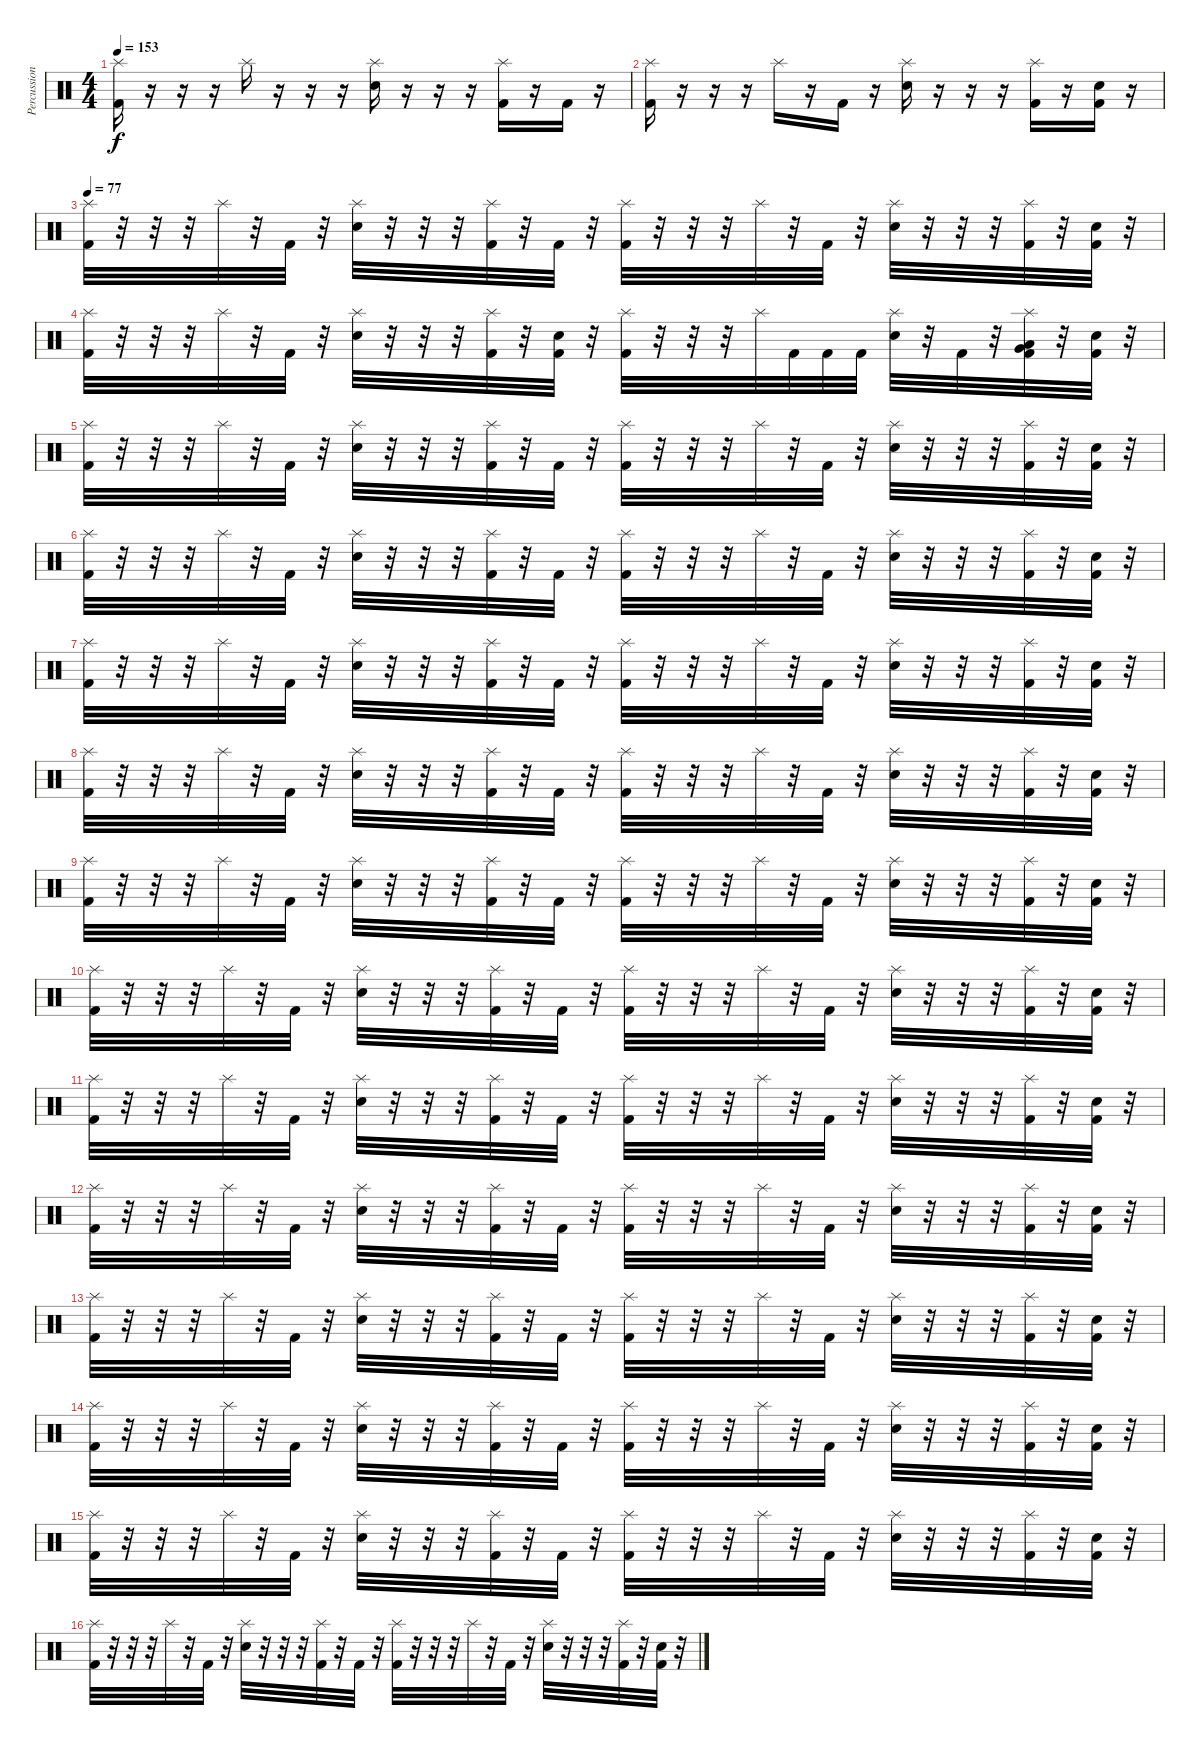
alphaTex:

\track ("Percussion" "Percussion") {instrument percussion}
\staff {score}
\articulation defaults
\ts (4 4)
\tempo 153
\clef neutral
\ks c
("Splash (hit)" "Kick (hit) 2").16{dy f} r.16 r.16 r.16 "Splash (hit)".16 r.16 r.16 r.16 ("Splash (hit)" "Electric Snare (hit)").16 r.16 r.16 r.16 ("Splash (hit)" "Kick (hit) 2").16 r.16 "Kick (hit) 2".16 r.16 |
("Splash (hit)" "Kick (hit) 2").16 r.16 r.16 r.16 "Splash (hit)".16 r.16 "Kick (hit) 2".16 r.16 ("Splash (hit)" "Electric Snare (hit)").16 r.16 r.16 r.16 ("Splash (hit)" "Kick (hit) 2").16 r.16 ("Electric Snare (hit)" "Kick (hit) 2").16 r.16 |
\tempo 77
("Splash (hit)" "Kick (hit) 2").32 r.32 r.32 r.32 "Splash (hit)".32 r.32 "Kick (hit) 2".32 r.32 ("Splash (hit)" "Electric Snare (hit)").32 r.32 r.32 r.32 ("Splash (hit)" "Kick (hit) 2").32 r.32 "Kick (hit) 2".32 r.32 ("Splash (hit)" "Kick (hit) 2").32 r.32 r.32 r.32 "Splash (hit)".32 r.32 "Kick (hit) 2".32 r.32 ("Splash (hit)" "Electric Snare (hit)").32 r.32 r.32 r.32 ("Splash (hit)" "Kick (hit) 2").32 r.32 ("Electric Snare (hit)" "Kick (hit) 2").32 r.32 |
("Splash (hit)" "Kick (hit) 2").32 r.32 r.32 r.32 "Splash (hit)".32 r.32 "Kick (hit) 2".32 r.32 ("Splash (hit)" "Electric Snare (hit)").32 r.32 r.32 r.32 ("Splash (hit)" "Kick (hit) 2").32 r.32 ("Electric Snare (hit)" "Kick (hit) 2").32 r.32 ("Splash (hit)" "Kick (hit) 2").32 r.32 r.32 r.32 "Splash (hit)".32 "Kick (hit) 2".32 "Kick (hit) 2".32 "Kick (hit) 2".32 ("Splash (hit)" "Electric Snare (hit)").32 r.32 "Kick (hit) 2".32 r.32 ("Splash (hit)" "Very Low Tom (hit)" "Low Floor Tom (hit)" "Kick (hit) 2").32 r.32 ("Electric Snare (hit)" "Kick (hit) 2").32 r.32 |
("Splash (hit)" "Kick (hit) 2").32 r.32 r.32 r.32 "Splash (hit)".32 r.32 "Kick (hit) 2".32 r.32 ("Splash (hit)" "Electric Snare (hit)").32 r.32 r.32 r.32 ("Splash (hit)" "Kick (hit) 2").32 r.32 "Kick (hit) 2".32 r.32 ("Splash (hit)" "Kick (hit) 2").32 r.32 r.32 r.32 "Splash (hit)".32 r.32 "Kick (hit) 2".32 r.32 ("Splash (hit)" "Electric Snare (hit)").32 r.32 r.32 r.32 ("Splash (hit)" "Kick (hit) 2").32 r.32 ("Electric Snare (hit)" "Kick (hit) 2").32 r.32 |
("Splash (hit)" "Kick (hit) 2").32 r.32 r.32 r.32 "Splash (hit)".32 r.32 "Kick (hit) 2".32 r.32 ("Splash (hit)" "Electric Snare (hit)").32 r.32 r.32 r.32 ("Splash (hit)" "Kick (hit) 2").32 r.32 "Kick (hit) 2".32 r.32 ("Splash (hit)" "Kick (hit) 2").32 r.32 r.32 r.32 "Splash (hit)".32 r.32 "Kick (hit) 2".32 r.32 ("Splash (hit)" "Electric Snare (hit)").32 r.32 r.32 r.32 ("Splash (hit)" "Kick (hit) 2").32 r.32 ("Electric Snare (hit)" "Kick (hit) 2").32 r.32 |
("Splash (hit)" "Kick (hit) 2").32 r.32 r.32 r.32 "Splash (hit)".32 r.32 "Kick (hit) 2".32 r.32 ("Splash (hit)" "Electric Snare (hit)").32 r.32 r.32 r.32 ("Splash (hit)" "Kick (hit) 2").32 r.32 "Kick (hit) 2".32 r.32 ("Splash (hit)" "Kick (hit) 2").32 r.32 r.32 r.32 "Splash (hit)".32 r.32 "Kick (hit) 2".32 r.32 ("Splash (hit)" "Electric Snare (hit)").32 r.32 r.32 r.32 ("Splash (hit)" "Kick (hit) 2").32 r.32 ("Electric Snare (hit)" "Kick (hit) 2").32 r.32 |
("Splash (hit)" "Kick (hit) 2").32 r.32 r.32 r.32 "Splash (hit)".32 r.32 "Kick (hit) 2".32 r.32 ("Splash (hit)" "Electric Snare (hit)").32 r.32 r.32 r.32 ("Splash (hit)" "Kick (hit) 2").32 r.32 "Kick (hit) 2".32 r.32 ("Splash (hit)" "Kick (hit) 2").32 r.32 r.32 r.32 "Splash (hit)".32 r.32 "Kick (hit) 2".32 r.32 ("Splash (hit)" "Electric Snare (hit)").32 r.32 r.32 r.32 ("Splash (hit)" "Kick (hit) 2").32 r.32 ("Electric Snare (hit)" "Kick (hit) 2").32 r.32 |
("Splash (hit)" "Kick (hit) 2").32 r.32 r.32 r.32 "Splash (hit)".32 r.32 "Kick (hit) 2".32 r.32 ("Splash (hit)" "Electric Snare (hit)").32 r.32 r.32 r.32 ("Splash (hit)" "Kick (hit) 2").32 r.32 "Kick (hit) 2".32 r.32 ("Splash (hit)" "Kick (hit) 2").32 r.32 r.32 r.32 "Splash (hit)".32 r.32 "Kick (hit) 2".32 r.32 ("Splash (hit)" "Electric Snare (hit)").32 r.32 r.32 r.32 ("Splash (hit)" "Kick (hit) 2").32 r.32 ("Electric Snare (hit)" "Kick (hit) 2").32 r.32 |
("Splash (hit)" "Kick (hit) 2").32 r.32 r.32 r.32 "Splash (hit)".32 r.32 "Kick (hit) 2".32 r.32 ("Splash (hit)" "Electric Snare (hit)").32 r.32 r.32 r.32 ("Splash (hit)" "Kick (hit) 2").32 r.32 "Kick (hit) 2".32 r.32 ("Splash (hit)" "Kick (hit) 2").32 r.32 r.32 r.32 "Splash (hit)".32 r.32 "Kick (hit) 2".32 r.32 ("Splash (hit)" "Electric Snare (hit)").32 r.32 r.32 r.32 ("Splash (hit)" "Kick (hit) 2").32 r.32 ("Electric Snare (hit)" "Kick (hit) 2").32 r.32 |
("Splash (hit)" "Kick (hit) 2").32 r.32 r.32 r.32 "Splash (hit)".32 r.32 "Kick (hit) 2".32 r.32 ("Splash (hit)" "Electric Snare (hit)").32 r.32 r.32 r.32 ("Splash (hit)" "Kick (hit) 2").32 r.32 "Kick (hit) 2".32 r.32 ("Splash (hit)" "Kick (hit) 2").32 r.32 r.32 r.32 "Splash (hit)".32 r.32 "Kick (hit) 2".32 r.32 ("Splash (hit)" "Electric Snare (hit)").32 r.32 r.32 r.32 ("Splash (hit)" "Kick (hit) 2").32 r.32 ("Electric Snare (hit)" "Kick (hit) 2").32 r.32 |
("Splash (hit)" "Kick (hit) 2").32 r.32 r.32 r.32 "Splash (hit)".32 r.32 "Kick (hit) 2".32 r.32 ("Splash (hit)" "Electric Snare (hit)").32 r.32 r.32 r.32 ("Splash (hit)" "Kick (hit) 2").32 r.32 "Kick (hit) 2".32 r.32 ("Splash (hit)" "Kick (hit) 2").32 r.32 r.32 r.32 "Splash (hit)".32 r.32 "Kick (hit) 2".32 r.32 ("Splash (hit)" "Electric Snare (hit)").32 r.32 r.32 r.32 ("Splash (hit)" "Kick (hit) 2").32 r.32 ("Electric Snare (hit)" "Kick (hit) 2").32 r.32 |
("Splash (hit)" "Kick (hit) 2").32 r.32 r.32 r.32 "Splash (hit)".32 r.32 "Kick (hit) 2".32 r.32 ("Splash (hit)" "Electric Snare (hit)").32 r.32 r.32 r.32 ("Splash (hit)" "Kick (hit) 2").32 r.32 "Kick (hit) 2".32 r.32 ("Splash (hit)" "Kick (hit) 2").32 r.32 r.32 r.32 "Splash (hit)".32 r.32 "Kick (hit) 2".32 r.32 ("Splash (hit)" "Electric Snare (hit)").32 r.32 r.32 r.32 ("Splash (hit)" "Kick (hit) 2").32 r.32 ("Electric Snare (hit)" "Kick (hit) 2").32 r.32 |
("Splash (hit)" "Kick (hit) 2").32 r.32 r.32 r.32 "Splash (hit)".32 r.32 "Kick (hit) 2".32 r.32 ("Splash (hit)" "Electric Snare (hit)").32 r.32 r.32 r.32 ("Splash (hit)" "Kick (hit) 2").32 r.32 "Kick (hit) 2".32 r.32 ("Splash (hit)" "Kick (hit) 2").32 r.32 r.32 r.32 "Splash (hit)".32 r.32 "Kick (hit) 2".32 r.32 ("Splash (hit)" "Electric Snare (hit)").32 r.32 r.32 r.32 ("Splash (hit)" "Kick (hit) 2").32 r.32 ("Electric Snare (hit)" "Kick (hit) 2").32 r.32 |
("Splash (hit)" "Kick (hit) 2").32 r.32 r.32 r.32 "Splash (hit)".32 r.32 "Kick (hit) 2".32 r.32 ("Splash (hit)" "Electric Snare (hit)").32 r.32 r.32 r.32 ("Splash (hit)" "Kick (hit) 2").32 r.32 "Kick (hit) 2".32 r.32 ("Splash (hit)" "Kick (hit) 2").32 r.32 r.32 r.32 "Splash (hit)".32 r.32 "Kick (hit) 2".32 r.32 ("Splash (hit)" "Electric Snare (hit)").32 r.32 r.32 r.32 ("Splash (hit)" "Kick (hit) 2").32 r.32 ("Electric Snare (hit)" "Kick (hit) 2").32 r.32 |
("Splash (hit)" "Kick (hit) 2").32 r.32 r.32 r.32 "Splash (hit)".32 r.32 "Kick (hit) 2".32 r.32 ("Splash (hit)" "Electric Snare (hit)").32 r.32 r.32 r.32 ("Splash (hit)" "Kick (hit) 2").32 r.32 "Kick (hit) 2".32 r.32 ("Splash (hit)" "Kick (hit) 2").32 r.32 r.32 r.32 "Splash (hit)".32 r.32 "Kick (hit) 2".32 r.32 ("Splash (hit)" "Electric Snare (hit)").32 r.32 r.32 r.32 ("Splash (hit)" "Kick (hit) 2").32 r.32 ("Electric Snare (hit)" "Kick (hit) 2").32 r.32
